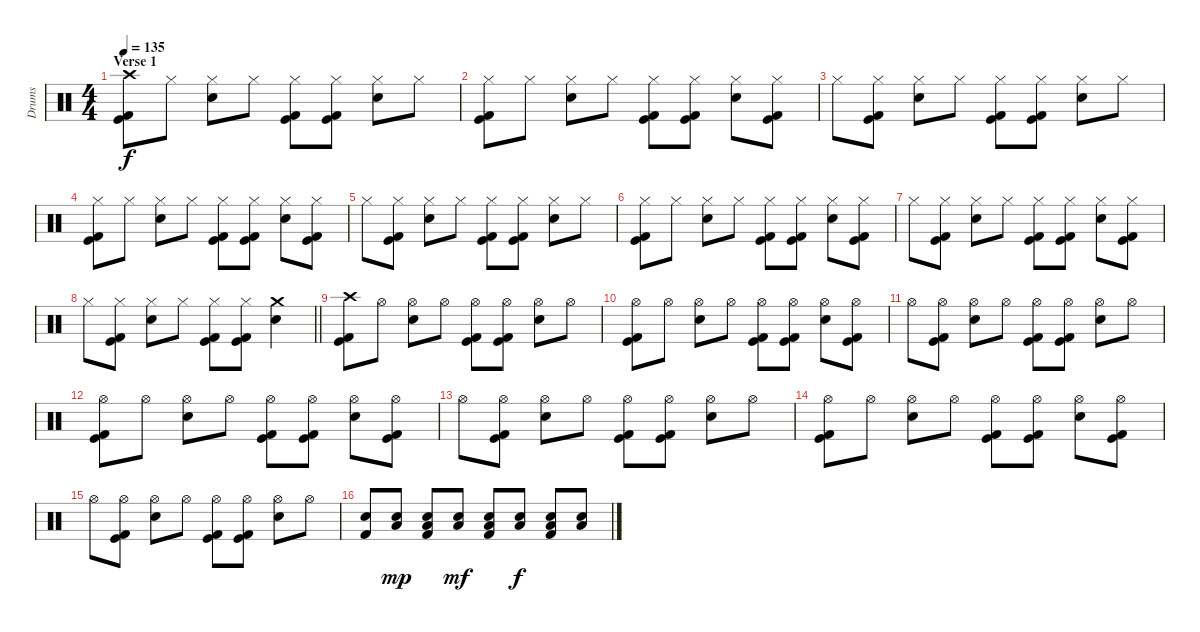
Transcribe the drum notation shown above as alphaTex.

\track ("Drums" "Drums") {instrument percussion}
\staff {score}
\articulation defaults
\ts (4 4)
\section ("" "Verse 1")
\tempo 135
\clef neutral
\ks c
("Crash high (hit)" "Kick (hit)" "Kick (hit) 2").8{dy f} "Hi-Hat (closed)".8 ("Hi-Hat (closed)" "Electric Snare (hit)").8 "Hi-Hat (closed)".8 ("Hi-Hat (closed)" "Kick (hit)" "Kick (hit) 2").8 ("Hi-Hat (closed)" "Kick (hit)" "Kick (hit) 2").8 ("Hi-Hat (closed)" "Electric Snare (hit)").8 "Hi-Hat (closed)".8 |
("Hi-Hat (closed)" "Kick (hit)" "Kick (hit) 2").8 "Hi-Hat (closed)".8 ("Hi-Hat (closed)" "Electric Snare (hit)").8 "Hi-Hat (closed)".8 ("Hi-Hat (closed)" "Kick (hit)" "Kick (hit) 2").8 ("Hi-Hat (closed)" "Kick (hit)" "Kick (hit) 2").8 ("Hi-Hat (closed)" "Electric Snare (hit)").8 ("Hi-Hat (closed)" "Kick (hit)" "Kick (hit) 2").8 |
"Hi-Hat (closed)".8 ("Hi-Hat (closed)" "Kick (hit)" "Kick (hit) 2").8 ("Hi-Hat (closed)" "Electric Snare (hit)").8 "Hi-Hat (closed)".8 ("Hi-Hat (closed)" "Kick (hit)" "Kick (hit) 2").8 ("Hi-Hat (closed)" "Kick (hit)" "Kick (hit) 2").8 ("Hi-Hat (closed)" "Electric Snare (hit)").8 "Hi-Hat (closed)".8 |
("Hi-Hat (closed)" "Kick (hit)" "Kick (hit) 2").8 "Hi-Hat (closed)".8 ("Hi-Hat (closed)" "Electric Snare (hit)").8 "Hi-Hat (closed)".8 ("Hi-Hat (closed)" "Kick (hit)" "Kick (hit) 2").8 ("Hi-Hat (closed)" "Kick (hit)" "Kick (hit) 2").8 ("Hi-Hat (closed)" "Electric Snare (hit)").8 ("Hi-Hat (closed)" "Kick (hit)" "Kick (hit) 2").8 |
"Hi-Hat (closed)".8 ("Hi-Hat (closed)" "Kick (hit)" "Kick (hit) 2").8 ("Hi-Hat (closed)" "Electric Snare (hit)").8 "Hi-Hat (closed)".8 ("Hi-Hat (closed)" "Kick (hit)" "Kick (hit) 2").8 ("Hi-Hat (closed)" "Kick (hit)" "Kick (hit) 2").8 ("Hi-Hat (closed)" "Electric Snare (hit)").8 "Hi-Hat (closed)".8 |
("Hi-Hat (closed)" "Kick (hit)" "Kick (hit) 2").8 "Hi-Hat (closed)".8 ("Hi-Hat (closed)" "Electric Snare (hit)").8 "Hi-Hat (closed)".8 ("Hi-Hat (closed)" "Kick (hit)" "Kick (hit) 2").8 ("Hi-Hat (closed)" "Kick (hit)" "Kick (hit) 2").8 ("Hi-Hat (closed)" "Electric Snare (hit)").8 ("Hi-Hat (closed)" "Kick (hit)" "Kick (hit) 2").8 |
"Hi-Hat (closed)".8 ("Hi-Hat (closed)" "Kick (hit)" "Kick (hit) 2").8 ("Hi-Hat (closed)" "Electric Snare (hit)").8 "Hi-Hat (closed)".8 ("Hi-Hat (closed)" "Kick (hit)" "Kick (hit) 2").8 ("Hi-Hat (closed)" "Kick (hit)" "Kick (hit) 2").8 ("Hi-Hat (closed)" "Electric Snare (hit)").8 ("Hi-Hat (closed)" "Kick (hit)" "Kick (hit) 2").8 |
\barLineRight lightlight "Hi-Hat (closed)".8
("Hi-Hat (closed)" "Kick (hit)" "Kick (hit) 2").8 ("Hi-Hat (closed)" "Electric Snare (hit)").8 "Hi-Hat (closed)".8 ("Hi-Hat (closed)" "Kick (hit)" "Kick (hit) 2").8 ("Hi-Hat (closed)" "Kick (hit)" "Kick (hit) 2").8 ("Crash medium (hit)" "Electric Snare (hit)").4 |
\section ("" "")
("Crash high (hit)" "Kick (hit)" "Kick (hit) 2").8 "Hi-Hat (open)".8 ("Hi-Hat (open)" "Electric Snare (hit)").8 "Hi-Hat (open)".8 ("Hi-Hat (open)" "Kick (hit)" "Kick (hit) 2").8 ("Hi-Hat (open)" "Kick (hit)" "Kick (hit) 2").8 ("Hi-Hat (open)" "Electric Snare (hit)").8 "Hi-Hat (open)".8 |
("Hi-Hat (open)" "Kick (hit)" "Kick (hit) 2").8 "Hi-Hat (open)".8 ("Hi-Hat (open)" "Electric Snare (hit)").8 "Hi-Hat (open)".8 ("Hi-Hat (open)" "Kick (hit)" "Kick (hit) 2").8 ("Hi-Hat (open)" "Kick (hit)" "Kick (hit) 2").8 ("Hi-Hat (open)" "Electric Snare (hit)").8 ("Hi-Hat (open)" "Kick (hit)" "Kick (hit) 2").8 |
"Hi-Hat (open)".8 ("Hi-Hat (open)" "Kick (hit)" "Kick (hit) 2").8 ("Hi-Hat (open)" "Electric Snare (hit)").8 "Hi-Hat (open)".8 ("Hi-Hat (open)" "Kick (hit)" "Kick (hit) 2").8 ("Hi-Hat (open)" "Kick (hit)" "Kick (hit) 2").8 ("Hi-Hat (open)" "Electric Snare (hit)").8 "Hi-Hat (open)".8 |
("Hi-Hat (open)" "Kick (hit)" "Kick (hit) 2").8 "Hi-Hat (open)".8 ("Hi-Hat (open)" "Electric Snare (hit)").8 "Hi-Hat (open)".8 ("Hi-Hat (open)" "Kick (hit)" "Kick (hit) 2").8 ("Hi-Hat (open)" "Kick (hit)" "Kick (hit) 2").8 ("Hi-Hat (open)" "Electric Snare (hit)").8 ("Hi-Hat (open)" "Kick (hit)" "Kick (hit) 2").8 |
"Hi-Hat (open)".8 ("Hi-Hat (open)" "Kick (hit)" "Kick (hit) 2").8 ("Hi-Hat (open)" "Electric Snare (hit)").8 "Hi-Hat (open)".8 ("Hi-Hat (open)" "Kick (hit)" "Kick (hit) 2").8 ("Hi-Hat (open)" "Kick (hit)" "Kick (hit) 2").8 ("Hi-Hat (open)" "Electric Snare (hit)").8 "Hi-Hat (open)".8 |
("Hi-Hat (open)" "Kick (hit)" "Kick (hit) 2").8 "Hi-Hat (open)".8 ("Hi-Hat (open)" "Electric Snare (hit)").8 "Hi-Hat (open)".8 ("Hi-Hat (open)" "Kick (hit)" "Kick (hit) 2").8 ("Hi-Hat (open)" "Kick (hit)" "Kick (hit) 2").8 ("Hi-Hat (open)" "Electric Snare (hit)").8 ("Hi-Hat (open)" "Kick (hit)" "Kick (hit) 2").8 |
"Hi-Hat (open)".8 ("Hi-Hat (open)" "Kick (hit)" "Kick (hit) 2").8 ("Hi-Hat (open)" "Electric Snare (hit)").8 "Hi-Hat (open)".8 ("Hi-Hat (open)" "Kick (hit)" "Kick (hit) 2").8 ("Hi-Hat (open)" "Kick (hit)" "Kick (hit) 2").8 ("Hi-Hat (open)" "Electric Snare (hit)").8 "Hi-Hat (open)".8 |
("Electric Snare (hit)" "Kick (hit) 2").8 ("Electric Snare (hit)" "Low Floor Tom (hit)").8{dy mp} ("Electric Snare (hit)" "Low Floor Tom (hit)" "Kick (hit) 2").8 ("Electric Snare (hit)" "Low Floor Tom (hit)").8{dy mf} ("Electric Snare (hit)" "Low Floor Tom (hit)" "Kick (hit) 2").8 ("Electric Snare (hit)" "Low Floor Tom (hit)").8{dy f} ("Electric Snare (hit)" "Low Floor Tom (hit)" "Kick (hit) 2").8 ("Electric Snare (hit)" "Low Floor Tom (hit)").8
